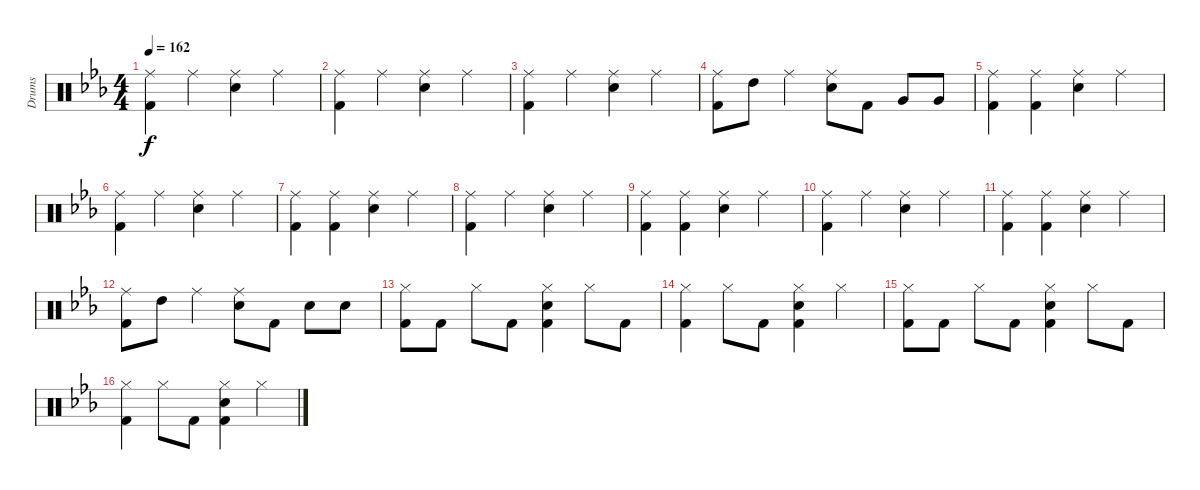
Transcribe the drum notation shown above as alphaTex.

\track ("Drums" "Drums") {instrument percussion}
\staff {score}
\articulation defaults
\ts (4 4)
\tempo 162
\clef neutral
\ks eb
("Ride (middle)" "Kick (hit) 2").4{dy f} "Ride (middle)".4 ("Ride (middle)" "Electric Snare (hit)").4 "Ride (middle)".4 |
("Ride (middle)" "Kick (hit) 2").4 "Ride (middle)".4 ("Ride (middle)" "Electric Snare (hit)").4 "Ride (middle)".4 |
("Ride (middle)" "Kick (hit) 2").4 "Ride (middle)".4 ("Ride (middle)" "Electric Snare (hit)").4 "Ride (middle)".4 |
("Ride (middle)" "Kick (hit) 2").8 "High Tom (hit)".8 "Ride (middle)".4 ("Ride (middle)" "Electric Snare (hit)").8 "Kick (hit) 2".8 "Very Low Tom (hit)".8 "Very Low Tom (hit)".8 |
("Ride (middle)" "Kick (hit) 2").4 ("Ride (middle)" "Kick (hit) 2").4 ("Ride (middle)" "Electric Snare (hit)").4 "Ride (middle)".4 |
("Ride (middle)" "Kick (hit) 2").4 "Ride (middle)".4 ("Ride (middle)" "Electric Snare (hit)").4 "Ride (middle)".4 |
("Ride (middle)" "Kick (hit) 2").4 ("Ride (middle)" "Kick (hit) 2").4 ("Ride (middle)" "Electric Snare (hit)").4 "Ride (middle)".4 |
("Ride (middle)" "Kick (hit) 2").4 "Ride (middle)".4 ("Ride (middle)" "Electric Snare (hit)").4 "Ride (middle)".4 |
("Ride (middle)" "Kick (hit) 2").4 ("Ride (middle)" "Kick (hit) 2").4 ("Ride (middle)" "Electric Snare (hit)").4 "Ride (middle)".4 |
("Ride (middle)" "Kick (hit) 2").4 "Ride (middle)".4 ("Ride (middle)" "Electric Snare (hit)").4 "Ride (middle)".4 |
("Ride (middle)" "Kick (hit) 2").4 ("Ride (middle)" "Kick (hit) 2").4 ("Ride (middle)" "Electric Snare (hit)").4 "Ride (middle)".4 |
("Ride (middle)" "Kick (hit) 2").8 "High Tom (hit)".8 "Ride (middle)".4 ("Ride (middle)" "Electric Snare (hit)").8 "Kick (hit) 2".8 "Electric Snare (hit)".8 "Electric Snare (hit)".8 |
("Hi-Hat (closed)" "Kick (hit) 2").8 "Kick (hit) 2".8 "Hi-Hat (closed)".8 "Kick (hit) 2".8 ("Hi-Hat (closed)" "Electric Snare (hit)" "Kick (hit) 2").4 "Hi-Hat (closed)".8 "Kick (hit) 2".8 |
("Hi-Hat (closed)" "Kick (hit) 2").4 "Hi-Hat (closed)".8 "Kick (hit) 2".8 ("Hi-Hat (closed)" "Electric Snare (hit)" "Kick (hit) 2").4 "Hi-Hat (closed)".4 |
("Hi-Hat (closed)" "Kick (hit) 2").8 "Kick (hit) 2".8 "Hi-Hat (closed)".8 "Kick (hit) 2".8 ("Hi-Hat (closed)" "Electric Snare (hit)" "Kick (hit) 2").4 "Hi-Hat (closed)".8 "Kick (hit) 2".8 |
("Hi-Hat (closed)" "Kick (hit) 2").4 "Hi-Hat (closed)".8 "Kick (hit) 2".8 ("Hi-Hat (closed)" "Electric Snare (hit)" "Kick (hit) 2").4 "Hi-Hat (closed)".4
